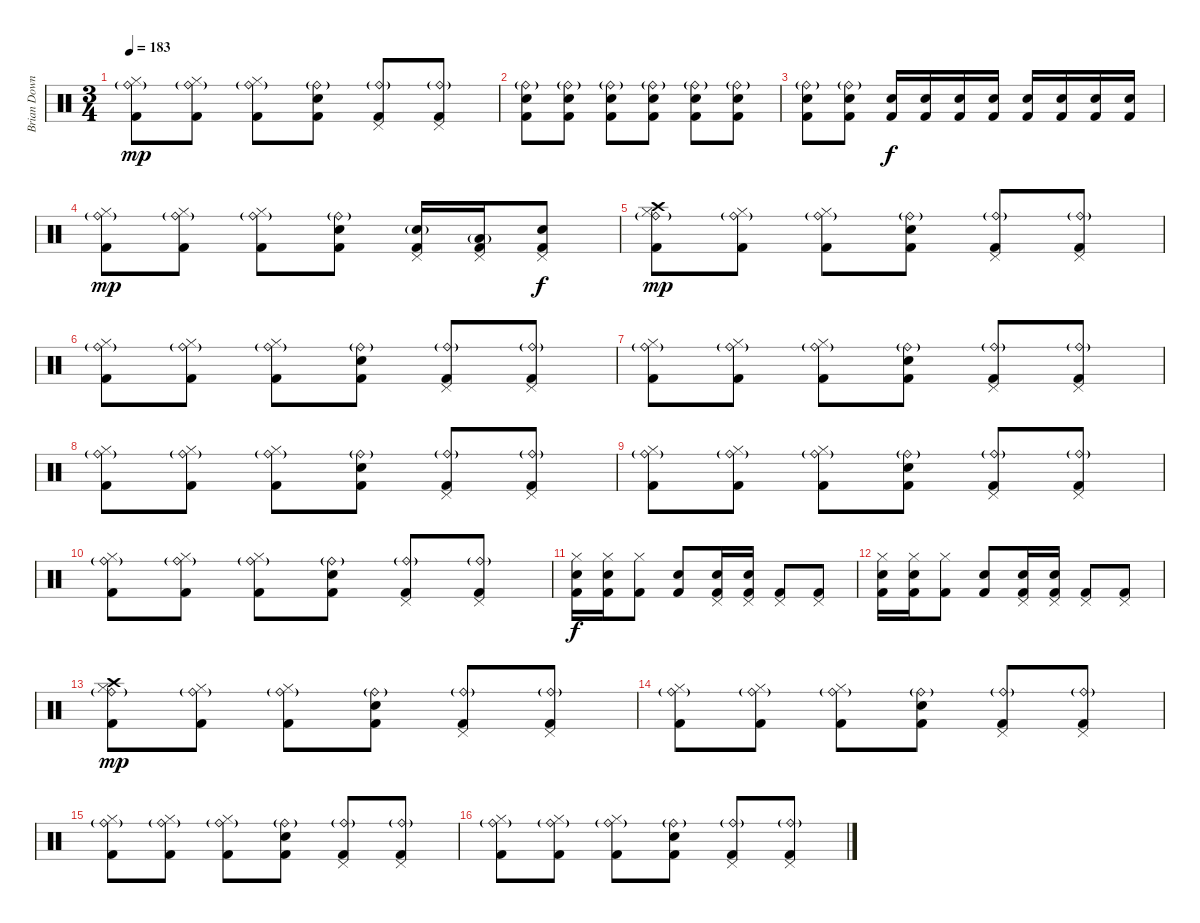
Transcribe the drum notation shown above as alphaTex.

\track ("Brian Downey" "Brian Down") {instrument percussion}
\staff {score}
\articulation defaults
\ts (3 4)
\tempo 183
\clef neutral
\ks c
("Ride (bell)"{g} "Hi-Hat (closed)" "Kick (hit) 2").8{dy mp} ("Ride (bell)"{g} "Hi-Hat (closed)" "Kick (hit) 2").8 ("Ride (bell)"{g} "Hi-Hat (closed)" "Kick (hit) 2").8 ("Ride (bell)"{g} "Snare (hit) 2" "Kick (hit) 2").8 ("Ride (bell)"{g} "Pedal Hi-Hat (hit)" "Kick (hit) 2").8 ("Ride (bell)"{g} "Pedal Hi-Hat (hit)" "Kick (hit) 2").8 |
("Ride (bell)"{g} "Snare (hit) 2" "Kick (hit) 2").8 ("Ride (bell)"{g} "Snare (hit) 2" "Kick (hit) 2").8 ("Ride (bell)"{g} "Snare (hit) 2" "Kick (hit) 2").8 ("Ride (bell)"{g} "Snare (hit) 2" "Kick (hit) 2").8 ("Ride (bell)"{g} "Snare (hit) 2" "Kick (hit) 2").8 ("Ride (bell)"{g} "Snare (hit) 2" "Kick (hit) 2").8 |
("Ride (bell)"{g} "Snare (hit) 2" "Kick (hit) 2").8 ("Ride (bell)"{g} "Snare (hit) 2" "Kick (hit) 2").8 ("Snare (hit) 2" "Kick (hit) 2").16{dy f} ("Snare (hit) 2" "Kick (hit) 2").16 ("Snare (hit) 2" "Kick (hit) 2").16 ("Snare (hit) 2" "Kick (hit) 2").16 ("Snare (hit) 2" "Kick (hit) 2").16 ("Snare (hit) 2" "Kick (hit) 2").16 ("Snare (hit) 2" "Kick (hit) 2").16 ("Snare (hit) 2" "Kick (hit) 2").16 |
("Ride (bell)"{g} "Hi-Hat (closed)" "Kick (hit) 2").8{dy mp} ("Ride (bell)"{g} "Hi-Hat (closed)" "Kick (hit) 2").8 ("Ride (bell)"{g} "Hi-Hat (closed)" "Kick (hit) 2").8 ("Ride (bell)"{g} "Snare (hit) 2" "Kick (hit) 2").8 ("Electric Snare (hit)"{g} "Pedal Hi-Hat (hit)" "Kick (hit) 2").16 ("Low Tom (hit)"{g} "Pedal Hi-Hat (hit)" "Kick (hit) 2").16 ("Snare (hit) 2" "Pedal Hi-Hat (hit)" "Kick (hit) 2").8{dy f} |
("Crash high (hit)" "Ride (bell)"{g} "Hi-Hat (closed)" "Kick (hit) 2").8{dy mp} ("Ride (bell)"{g} "Hi-Hat (closed)" "Kick (hit) 2").8 ("Ride (bell)"{g} "Hi-Hat (closed)" "Kick (hit) 2").8 ("Ride (bell)"{g} "Snare (hit) 2" "Kick (hit) 2").8 ("Ride (bell)"{g} "Pedal Hi-Hat (hit)" "Kick (hit) 2").8 ("Ride (bell)"{g} "Pedal Hi-Hat (hit)" "Kick (hit) 2").8 |
("Ride (bell)"{g} "Hi-Hat (closed)" "Kick (hit) 2").8 ("Ride (bell)"{g} "Hi-Hat (closed)" "Kick (hit) 2").8 ("Ride (bell)"{g} "Hi-Hat (closed)" "Kick (hit) 2").8 ("Ride (bell)"{g} "Snare (hit) 2" "Kick (hit) 2").8 ("Ride (bell)"{g} "Pedal Hi-Hat (hit)" "Kick (hit) 2").8 ("Ride (bell)"{g} "Pedal Hi-Hat (hit)" "Kick (hit) 2").8 |
("Ride (bell)"{g} "Hi-Hat (closed)" "Kick (hit) 2").8 ("Ride (bell)"{g} "Hi-Hat (closed)" "Kick (hit) 2").8 ("Ride (bell)"{g} "Hi-Hat (closed)" "Kick (hit) 2").8 ("Ride (bell)"{g} "Snare (hit) 2" "Kick (hit) 2").8 ("Ride (bell)"{g} "Pedal Hi-Hat (hit)" "Kick (hit) 2").8 ("Ride (bell)"{g} "Pedal Hi-Hat (hit)" "Kick (hit) 2").8 |
("Ride (bell)"{g} "Hi-Hat (closed)" "Kick (hit) 2").8 ("Ride (bell)"{g} "Hi-Hat (closed)" "Kick (hit) 2").8 ("Ride (bell)"{g} "Hi-Hat (closed)" "Kick (hit) 2").8 ("Ride (bell)"{g} "Snare (hit) 2" "Kick (hit) 2").8 ("Ride (bell)"{g} "Pedal Hi-Hat (hit)" "Kick (hit) 2").8 ("Ride (bell)"{g} "Pedal Hi-Hat (hit)" "Kick (hit) 2").8 |
("Ride (bell)"{g} "Hi-Hat (closed)" "Kick (hit) 2").8 ("Ride (bell)"{g} "Hi-Hat (closed)" "Kick (hit) 2").8 ("Ride (bell)"{g} "Hi-Hat (closed)" "Kick (hit) 2").8 ("Ride (bell)"{g} "Snare (hit) 2" "Kick (hit) 2").8 ("Ride (bell)"{g} "Pedal Hi-Hat (hit)" "Kick (hit) 2").8 ("Ride (bell)"{g} "Pedal Hi-Hat (hit)" "Kick (hit) 2").8 |
("Ride (bell)"{g} "Hi-Hat (closed)" "Kick (hit) 2").8 ("Ride (bell)"{g} "Hi-Hat (closed)" "Kick (hit) 2").8 ("Ride (bell)"{g} "Hi-Hat (closed)" "Kick (hit) 2").8 ("Ride (bell)"{g} "Snare (hit) 2" "Kick (hit) 2").8 ("Ride (bell)"{g} "Pedal Hi-Hat (hit)" "Kick (hit) 2").8 ("Ride (bell)"{g} "Pedal Hi-Hat (hit)" "Kick (hit) 2").8 |
("Electric Snare (hit)" "Hi-Hat (closed)" "Kick (hit) 2").16{dy f} ("Electric Snare (hit)" "Hi-Hat (closed)" "Kick (hit) 2").16 ("Hi-Hat (closed)" "Kick (hit) 2").8 ("Snare (hit) 2" "Kick (hit) 2").8 ("Electric Snare (hit)" "Pedal Hi-Hat (hit)" "Kick (hit) 2").16 ("Electric Snare (hit)" "Pedal Hi-Hat (hit)" "Kick (hit) 2").16 ("Pedal Hi-Hat (hit)" "Kick (hit) 2").8 ("Pedal Hi-Hat (hit)" "Kick (hit) 2").8 |
("Electric Snare (hit)" "Hi-Hat (closed)" "Kick (hit) 2").16 ("Electric Snare (hit)" "Hi-Hat (closed)" "Kick (hit) 2").16 ("Hi-Hat (closed)" "Kick (hit) 2").8 ("Snare (hit) 2" "Kick (hit) 2").8 ("Electric Snare (hit)" "Pedal Hi-Hat (hit)" "Kick (hit) 2").16 ("Electric Snare (hit)" "Pedal Hi-Hat (hit)" "Kick (hit) 2").16 ("Pedal Hi-Hat (hit)" "Kick (hit) 2").8 ("Pedal Hi-Hat (hit)" "Kick (hit) 2").8 |
("Crash high (hit)" "Ride (bell)"{g} "Hi-Hat (closed)" "Kick (hit) 2").8{dy mp} ("Ride (bell)"{g} "Hi-Hat (closed)" "Kick (hit) 2").8 ("Ride (bell)"{g} "Hi-Hat (closed)" "Kick (hit) 2").8 ("Ride (bell)"{g} "Snare (hit) 2" "Kick (hit) 2").8 ("Ride (bell)"{g} "Pedal Hi-Hat (hit)" "Kick (hit) 2").8 ("Ride (bell)"{g} "Pedal Hi-Hat (hit)" "Kick (hit) 2").8 |
("Ride (bell)"{g} "Hi-Hat (closed)" "Kick (hit) 2").8 ("Ride (bell)"{g} "Hi-Hat (closed)" "Kick (hit) 2").8 ("Ride (bell)"{g} "Hi-Hat (closed)" "Kick (hit) 2").8 ("Ride (bell)"{g} "Snare (hit) 2" "Kick (hit) 2").8 ("Ride (bell)"{g} "Pedal Hi-Hat (hit)" "Kick (hit) 2").8 ("Ride (bell)"{g} "Pedal Hi-Hat (hit)" "Kick (hit) 2").8 |
("Ride (bell)"{g} "Hi-Hat (closed)" "Kick (hit) 2").8 ("Ride (bell)"{g} "Hi-Hat (closed)" "Kick (hit) 2").8 ("Ride (bell)"{g} "Hi-Hat (closed)" "Kick (hit) 2").8 ("Ride (bell)"{g} "Snare (hit) 2" "Kick (hit) 2").8 ("Ride (bell)"{g} "Pedal Hi-Hat (hit)" "Kick (hit) 2").8 ("Ride (bell)"{g} "Pedal Hi-Hat (hit)" "Kick (hit) 2").8 |
("Ride (bell)"{g} "Hi-Hat (closed)" "Kick (hit) 2").8 ("Ride (bell)"{g} "Hi-Hat (closed)" "Kick (hit) 2").8 ("Ride (bell)"{g} "Hi-Hat (closed)" "Kick (hit) 2").8 ("Ride (bell)"{g} "Snare (hit) 2" "Kick (hit) 2").8 ("Ride (bell)"{g} "Pedal Hi-Hat (hit)" "Kick (hit) 2").8 ("Ride (bell)"{g} "Pedal Hi-Hat (hit)" "Kick (hit) 2").8
